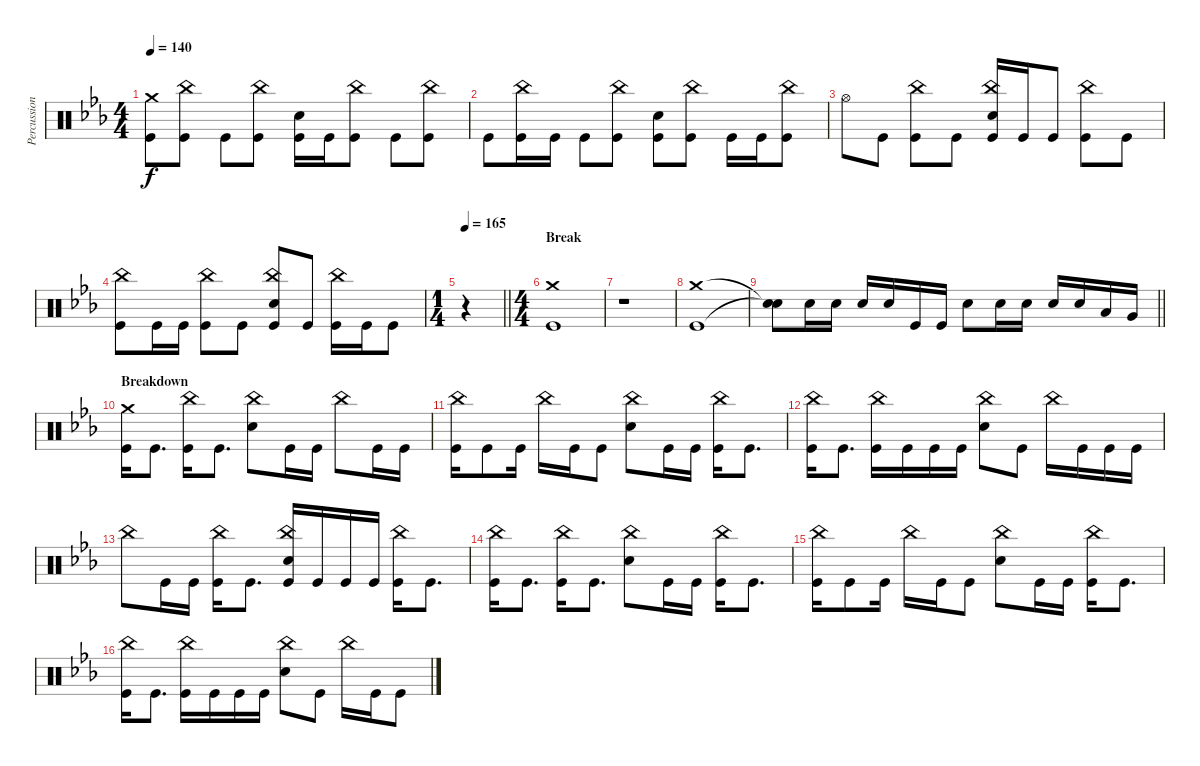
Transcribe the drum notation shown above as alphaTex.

\track ("Percussion" "Percussion") {instrument percussion}
\staff {score}
\articulation defaults
\ts (4 4)
\tempo 140
\clef neutral
\ks eb
("Crash medium (hit)" "Kick (hit)").8{dy f} ("China (hit)" "Kick (hit)").8 "Kick (hit)".8 ("China (hit)" "Kick (hit)").8 ("Electric Snare (hit)" "Kick (hit)").16 "Kick (hit)".16 ("China (hit)" "Kick (hit)").8 "Kick (hit)".8 ("China (hit)" "Kick (hit)").8 |
"Kick (hit)".8 ("China (hit)" "Kick (hit)").16 "Kick (hit)".16 "Kick (hit)".8 ("China (hit)" "Kick (hit)").8 ("Electric Snare (hit)" "Kick (hit)").8 ("China (hit)" "Kick (hit)").8 "Kick (hit)".16 "Kick (hit)".16 ("China (hit)" "Kick (hit)").8 |
"Hi-Hat (open)".8 "Kick (hit)".8 ("China (hit)" "Kick (hit)").8 "Kick (hit)".8 ("China (hit)" "Electric Snare (hit)" "Kick (hit)").16 "Kick (hit)".16 "Kick (hit)".8 ("China (hit)" "Kick (hit)").8 "Kick (hit)".8 |
("China (hit)" "Kick (hit)").8 "Kick (hit)".16 "Kick (hit)".16 ("China (hit)" "Kick (hit)").8 "Kick (hit)".8 ("China (hit)" "Electric Snare (hit)" "Kick (hit)").8 "Kick (hit)".8 ("China (hit)" "Kick (hit)").16 "Kick (hit)".16 "Kick (hit)".8 |
\ts (1 4)
\tempo 165
\barLineRight lightlight
r.4 |
\ts (4 4)
\section ("" "Break")
("Crash medium (hit)" "Kick (hit)").1 |
r.1 |
("Crash medium (hit)" "Kick (hit)").1 |
\barLineRight lightlight
("Snare (hit)"{t} "Snare (hit)"{t}).8 "Electric Snare (hit)".16 "Electric Snare (hit)".16 "Electric Snare (hit)".16 "Electric Snare (hit)".16 "Kick (hit)".16 "Kick (hit)".16 "Electric Snare (hit)".8 "Electric Snare (hit)".16 "Electric Snare (hit)".16 "Electric Snare (hit)".16 "Electric Snare (hit)".16 "Low Tom (hit)".16 "Very Low Tom (hit)".16 |
\section ("" "Breakdown")
("Crash medium (hit)" "Kick (hit)").16 "Kick (hit)".8{d} ("China (hit)" "Kick (hit)").16 "Kick (hit)".8{d} ("China (hit)" "Electric Snare (hit)").8 "Kick (hit)".16 "Kick (hit)".16 "China (hit)".8 "Kick (hit)".16 "Kick (hit)".16 |
("China (hit)" "Kick (hit)").16 "Kick (hit)".8 "Kick (hit)".16 "China (hit)".16 "Kick (hit)".16 "Kick (hit)".8 ("China (hit)" "Electric Snare (hit)").8 "Kick (hit)".16 "Kick (hit)".16 ("China (hit)" "Kick (hit)").16 "Kick (hit)".8{d} |
("China (hit)" "Kick (hit)").16 "Kick (hit)".8{d} ("China (hit)" "Kick (hit)").16 "Kick (hit)".16 "Kick (hit)".16 "Kick (hit)".16 ("China (hit)" "Electric Snare (hit)").8 "Kick (hit)".8 "China (hit)".16 "Kick (hit)".16 "Kick (hit)".16 "Kick (hit)".16 |
"China (hit)".8 "Kick (hit)".16 "Kick (hit)".16 ("China (hit)" "Kick (hit)").16 "Kick (hit)".8{d} ("China (hit)" "Electric Snare (hit)" "Kick (hit)").16 "Kick (hit)".16 "Kick (hit)".16 "Kick (hit)".16 ("China (hit)" "Kick (hit)").16 "Kick (hit)".8{d} |
("China (hit)" "Kick (hit)").16 "Kick (hit)".8{d} ("China (hit)" "Kick (hit)").16 "Kick (hit)".8{d} ("China (hit)" "Electric Snare (hit)").8 "Kick (hit)".16 "Kick (hit)".16 ("China (hit)" "Kick (hit)").16 "Kick (hit)".8{d} |
("China (hit)" "Kick (hit)").16 "Kick (hit)".8 "Kick (hit)".16 "China (hit)".16 "Kick (hit)".16 "Kick (hit)".8 ("China (hit)" "Electric Snare (hit)").8 "Kick (hit)".16 "Kick (hit)".16 ("China (hit)" "Kick (hit)").16 "Kick (hit)".8{d} |
("China (hit)" "Kick (hit)").16 "Kick (hit)".8{d} ("China (hit)" "Kick (hit)").16 "Kick (hit)".16 "Kick (hit)".16 "Kick (hit)".16 ("China (hit)" "Electric Snare (hit)").8 "Kick (hit)".8 "China (hit)".16 "Kick (hit)".16 "Kick (hit)".8
